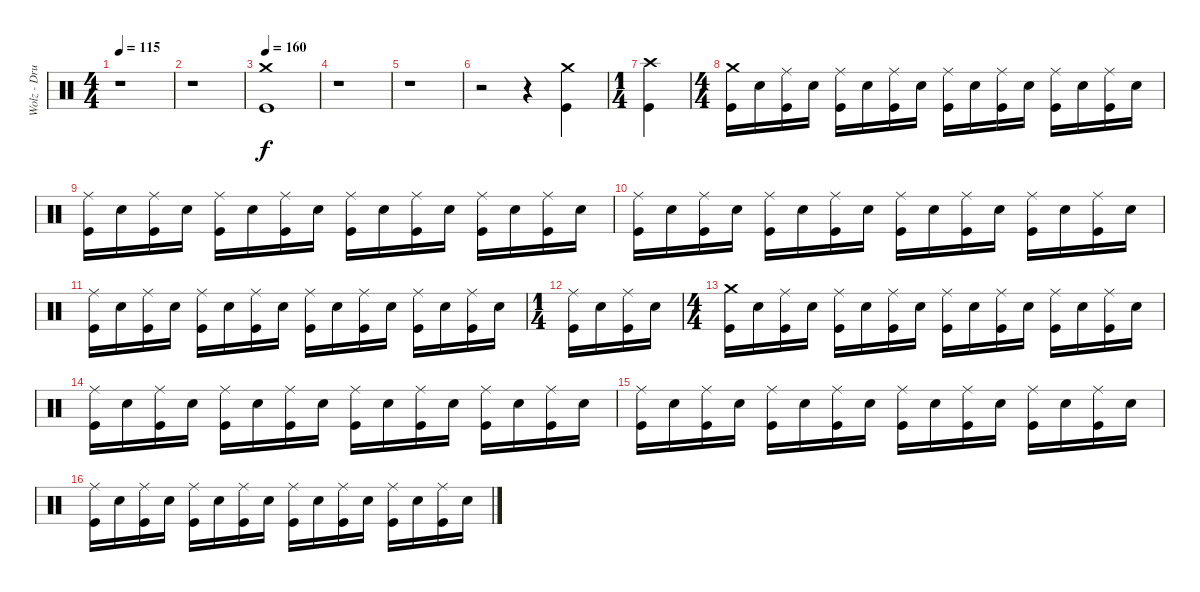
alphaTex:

\track ("Wolz - Drums" "Wolz - Dru") {instrument percussion}
\staff {score}
\articulation defaults
\ts (4 4)
\tempo 115
\clef neutral
\ks c
r.1{dy f} |
r.1 |
\tempo 160
("Crash medium (hit)" "Kick (hit)").1{volume 15} |
r.1 |
r.1 |
r.2 r.4 ("Crash medium (hit)" "Kick (hit)").4 |
\ts (1 4)
("Crash high (hit)" "Kick (hit)").4 |
\ts (4 4)
("Crash medium (hit)" "Kick (hit)").16 "Electric Snare (hit)".16 ("Ride (middle)" "Kick (hit)").16 "Electric Snare (hit)".16 ("Ride (middle)" "Kick (hit)").16 "Electric Snare (hit)".16 ("Ride (middle)" "Kick (hit)").16 "Electric Snare (hit)".16 ("Ride (middle)" "Kick (hit)").16 "Electric Snare (hit)".16 ("Ride (middle)" "Kick (hit)").16 "Electric Snare (hit)".16 ("Ride (middle)" "Kick (hit)").16 "Electric Snare (hit)".16 ("Ride (middle)" "Kick (hit)").16 "Electric Snare (hit)".16 |
("Ride (middle)" "Kick (hit)").16 "Electric Snare (hit)".16 ("Ride (middle)" "Kick (hit)").16 "Electric Snare (hit)".16 ("Ride (middle)" "Kick (hit)").16 "Electric Snare (hit)".16 ("Ride (middle)" "Kick (hit)").16 "Electric Snare (hit)".16 ("Ride (middle)" "Kick (hit)").16 "Electric Snare (hit)".16 ("Ride (middle)" "Kick (hit)").16 "Electric Snare (hit)".16 ("Ride (middle)" "Kick (hit)").16 "Electric Snare (hit)".16 ("Ride (middle)" "Kick (hit)").16 "Electric Snare (hit)".16 |
("Ride (middle)" "Kick (hit)").16 "Electric Snare (hit)".16 ("Ride (middle)" "Kick (hit)").16 "Electric Snare (hit)".16 ("Ride (middle)" "Kick (hit)").16 "Electric Snare (hit)".16 ("Ride (middle)" "Kick (hit)").16 "Electric Snare (hit)".16 ("Ride (middle)" "Kick (hit)").16 "Electric Snare (hit)".16 ("Ride (middle)" "Kick (hit)").16 "Electric Snare (hit)".16 ("Ride (middle)" "Kick (hit)").16 "Electric Snare (hit)".16 ("Ride (middle)" "Kick (hit)").16 "Electric Snare (hit)".16 |
("Ride (middle)" "Kick (hit)").16 "Electric Snare (hit)".16 ("Ride (middle)" "Kick (hit)").16 "Electric Snare (hit)".16 ("Ride (middle)" "Kick (hit)").16 "Electric Snare (hit)".16 ("Ride (middle)" "Kick (hit)").16 "Electric Snare (hit)".16 ("Ride (middle)" "Kick (hit)").16 "Electric Snare (hit)".16 ("Ride (middle)" "Kick (hit)").16 "Electric Snare (hit)".16 ("Ride (middle)" "Kick (hit)").16 "Electric Snare (hit)".16 ("Ride (middle)" "Kick (hit)").16 "Electric Snare (hit)".16 |
\ts (1 4)
("Ride (middle)" "Kick (hit)").16 "Electric Snare (hit)".16 ("Ride (middle)" "Kick (hit)").16 "Electric Snare (hit)".16 |
\ts (4 4)
("Crash medium (hit)" "Kick (hit)").16 "Electric Snare (hit)".16 ("Ride (middle)" "Kick (hit)").16 "Electric Snare (hit)".16 ("Ride (middle)" "Kick (hit)").16 "Electric Snare (hit)".16 ("Ride (middle)" "Kick (hit)").16 "Electric Snare (hit)".16 ("Ride (middle)" "Kick (hit)").16 "Electric Snare (hit)".16 ("Ride (middle)" "Kick (hit)").16 "Electric Snare (hit)".16 ("Ride (middle)" "Kick (hit)").16 "Electric Snare (hit)".16 ("Ride (middle)" "Kick (hit)").16 "Electric Snare (hit)".16 |
("Ride (middle)" "Kick (hit)").16 "Electric Snare (hit)".16 ("Ride (middle)" "Kick (hit)").16 "Electric Snare (hit)".16 ("Ride (middle)" "Kick (hit)").16 "Electric Snare (hit)".16 ("Ride (middle)" "Kick (hit)").16 "Electric Snare (hit)".16 ("Ride (middle)" "Kick (hit)").16 "Electric Snare (hit)".16 ("Ride (middle)" "Kick (hit)").16 "Electric Snare (hit)".16 ("Ride (middle)" "Kick (hit)").16 "Electric Snare (hit)".16 ("Ride (middle)" "Kick (hit)").16 "Electric Snare (hit)".16 |
("Ride (middle)" "Kick (hit)").16 "Electric Snare (hit)".16 ("Ride (middle)" "Kick (hit)").16 "Electric Snare (hit)".16 ("Ride (middle)" "Kick (hit)").16 "Electric Snare (hit)".16 ("Ride (middle)" "Kick (hit)").16 "Electric Snare (hit)".16 ("Ride (middle)" "Kick (hit)").16 "Electric Snare (hit)".16 ("Ride (middle)" "Kick (hit)").16 "Electric Snare (hit)".16 ("Ride (middle)" "Kick (hit)").16 "Electric Snare (hit)".16 ("Ride (middle)" "Kick (hit)").16 "Electric Snare (hit)".16 |
("Ride (middle)" "Kick (hit)").16 "Electric Snare (hit)".16 ("Ride (middle)" "Kick (hit)").16 "Electric Snare (hit)".16 ("Ride (middle)" "Kick (hit)").16 "Electric Snare (hit)".16 ("Ride (middle)" "Kick (hit)").16 "Electric Snare (hit)".16 ("Ride (middle)" "Kick (hit)").16 "Electric Snare (hit)".16 ("Ride (middle)" "Kick (hit)").16 "Electric Snare (hit)".16 ("Ride (middle)" "Kick (hit)").16 "Electric Snare (hit)".16 ("Ride (middle)" "Kick (hit)").16 "Electric Snare (hit)".16
